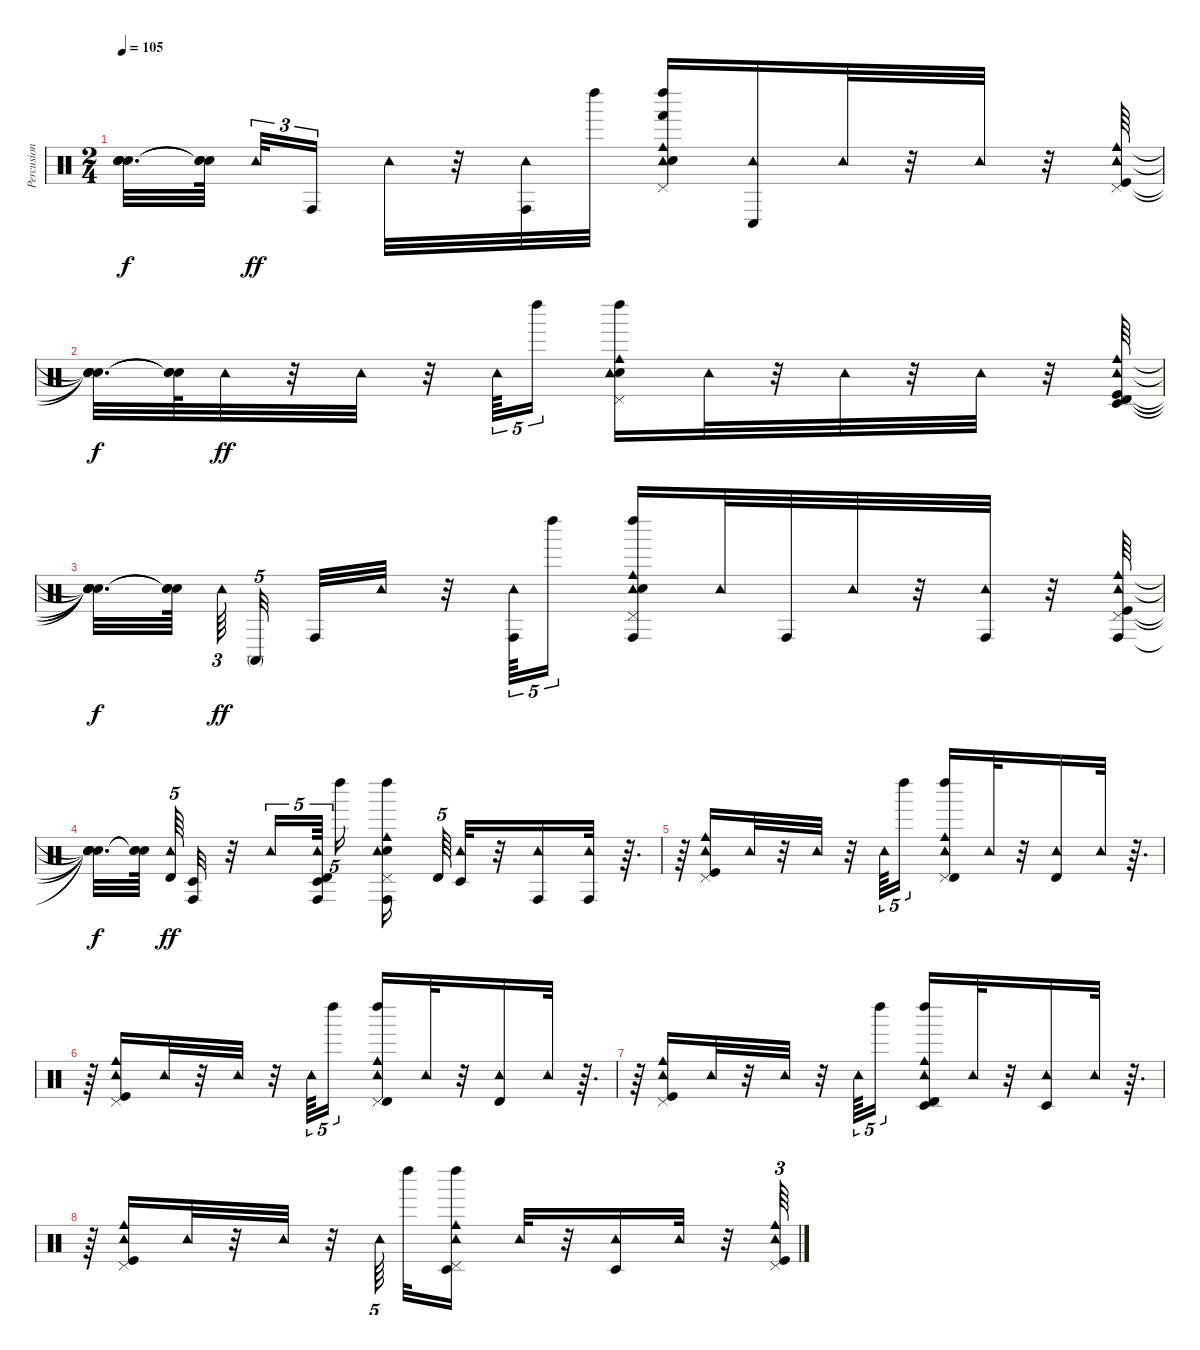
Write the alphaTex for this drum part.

\track ("Percusion" "Percusion") {instrument percussion}
\staff {score}
\articulation defaults
\ts (2 4)
\tempo 105
\clef neutral
\ks c
("Snare (hit)"{t} "Snare (hit)"{t} "Snare (hit)"{t} "Snare (hit)"{t}).32{d dy f} ("Snare (hit)"{t} "Snare (hit)"{t} "Snare (hit)"{t}).64{beam splitsecondary} "Tambourine (hit)".32{tu (3 2) dy ff} "Conga high (hit)".16{tu (3 2) beam splitsecondary} "Tambourine (hit)".32 r.32 ("Tambourine (hit)" "Conga high (hit)").32 "Left Maraca (hit)".32 ("Hand (hit)" "Pedal Hi-Hat (hit)" "Tambourine (hit)" "Electric Snare (hit)" "Cowbell medium (hit)" "Left Maraca (hit)").16 ("Tambourine (hit)" "Conga low (hit)").16 "Tambourine (hit)".32 r.32 "Tambourine (hit)".32 r.32 ("Cowbell medium (hit)" "Kick (hit)" "Tambourine (hit)" "Pedal Hi-Hat (hit)").64 |
("Snare (hit)"{t} "Snare (hit)"{t} "Snare (hit)"{t} "Snare (hit)"{t}).32{d dy f} ("Snare (hit)"{t} "Snare (hit)"{t} "Snare (hit)"{t}).64 "Tambourine (hit)".32{dy ff} r.32 "Tambourine (hit)".32 r.32 "Tambourine (hit)".64{tu (5 4)} "Left Maraca (hit)".16{tu (5 4)} ("Cowbell medium (hit)" "Electric Snare (hit)" "Tambourine (hit)" "Pedal Hi-Hat (hit)" "Left Maraca (hit)").16 "Tambourine (hit)".32 r.32 "Tambourine (hit)".32 r.32 "Tambourine (hit)".32 r.32 ("Timbale high (hit)" "Timbale low (hit)" "Pedal Hi-Hat (hit)" "Kick (hit)" "Tambourine (hit)" "Cowbell medium (hit)").64 |
("Snare (hit)"{t} "Snare (hit)"{t} "Snare (hit)"{t} "Snare (hit)"{t} "Snare (hit)"{t} "Snare (hit)"{t}).32{d dy f} ("Snare (hit)"{t} "Snare (hit)"{t} "Snare (hit)"{t}).64{beam splitsecondary} "Tambourine (hit)".64{tu (3 2) dy ff} "Conga high (mute)".32{tu (5 4) beam splitsecondary} "Conga high (hit)".32 "Tambourine (hit)".32 r.32 ("Conga high (hit)" "Tambourine (hit)").64{tu (5 4)} "Left Maraca (hit)".16{tu (5 4)} ("Pedal Hi-Hat (hit)" "Tambourine (hit)" "Cowbell medium (hit)" "Electric Snare (hit)" "Left Maraca (hit)" "Conga high (hit)").16 "Tambourine (hit)".32 "Conga high (hit)".32 "Tambourine (hit)".32 r.32 ("Conga high (hit)" "Tambourine (hit)").32 r.32 ("Conga high (hit)" "Cowbell medium (hit)" "Kick (hit)" "Tambourine (hit)" "Pedal Hi-Hat (hit)").64 |
("Snare (hit)"{t} "Snare (hit)"{t} "Snare (hit)"{t} "Snare (hit)"{t} "Snare (hit)"{t}).32{d dy f} ("Snare (hit)"{t} "Snare (hit)"{t} "Snare (hit)"{t}).64{beam splitsecondary} ("Tambourine (hit)" "Timbale high (hit)").64{tu (5 4) dy ff} ("Conga high (hit)" "Timbale low (hit)").32 r.32 "Tambourine (hit)".16{tu (5 4)} ("Timbale high (hit)" "Conga high (hit)" "Timbale low (hit)" "Tambourine (hit)").64{tu (5 4) beam splitsecondary} "Left Maraca (hit)".16{tu (5 4)} ("Electric Snare (hit)" "Tambourine (hit)" "Cowbell medium (hit)" "Pedal Hi-Hat (hit)" "Conga high (hit)" "Left Maraca (hit)").16{beam splitsecondary} "Timbale high (hit)".64{tu (5 4)} ("Tambourine (hit)" "Timbale low (hit)").32 r.32 ("Tambourine (hit)" "Conga high (hit)").16 ("Tambourine (hit)" "Conga high (hit)").32 r.64{d} |
r.64 ("Pedal Hi-Hat (hit)" "Kick (hit)" "Tambourine (hit)" "Cowbell medium (hit)").16 "Tambourine (hit)".32 r.32 "Tambourine (hit)".32 r.32 "Tambourine (hit)".64{tu (5 4)} "Left Maraca (hit)".16{tu (5 4)} ("Tambourine (hit)" "Cowbell medium (hit)" "Pedal Hi-Hat (hit)" "Left Maraca (hit)" "Timbale high (hit)").16 "Tambourine (hit)".32 r.32 ("Tambourine (hit)" "Timbale high (hit)").16 "Tambourine (hit)".32 r.64{d} |
r.64 ("Cowbell medium (hit)" "Tambourine (hit)" "Kick (hit)" "Pedal Hi-Hat (hit)").16 "Tambourine (hit)".32 r.32 "Tambourine (hit)".32 r.32 "Tambourine (hit)".64{tu (5 4)} "Left Maraca (hit)".16{tu (5 4)} ("Pedal Hi-Hat (hit)" "Cowbell medium (hit)" "Timbale high (hit)" "Tambourine (hit)" "Left Maraca (hit)").16 "Tambourine (hit)".32 r.32 ("Tambourine (hit)" "Timbale high (hit)").16 "Tambourine (hit)".32 r.64{d} |
r.64 ("Pedal Hi-Hat (hit)" "Cowbell medium (hit)" "Tambourine (hit)" "Kick (hit)").16 "Tambourine (hit)".32 r.32 "Tambourine (hit)".32 r.32 "Tambourine (hit)".64{tu (5 4)} "Left Maraca (hit)".16{tu (5 4)} ("Timbale low (hit)" "Tambourine (hit)" "Cowbell medium (hit)" "Pedal Hi-Hat (hit)" "Timbale high (hit)" "Left Maraca (hit)").16 "Tambourine (hit)".32 r.32 ("Tambourine (hit)" "Timbale low (hit)").16 "Tambourine (hit)".32 r.64{d} |
r.64 ("Tambourine (hit)" "Kick (hit)" "Cowbell medium (hit)" "Pedal Hi-Hat (hit)").16 "Tambourine (hit)".32 r.32 "Tambourine (hit)".32 r.32 "Tambourine (hit)".64{tu (5 4) beam splitsecondary} "Left Maraca (hit)".32 ("Timbale low (hit)" "Pedal Hi-Hat (hit)" "Cowbell medium (hit)" "Tambourine (hit)" "Left Maraca (hit)").16 "Tambourine (hit)".32 r.32 ("Timbale low (hit)" "Tambourine (hit)").16 "Tambourine (hit)".32 r.32 ("Pedal Hi-Hat (hit)" "Tambourine (hit)" "Cowbell medium (hit)" "Kick (hit)").64{tu (3 2)}
